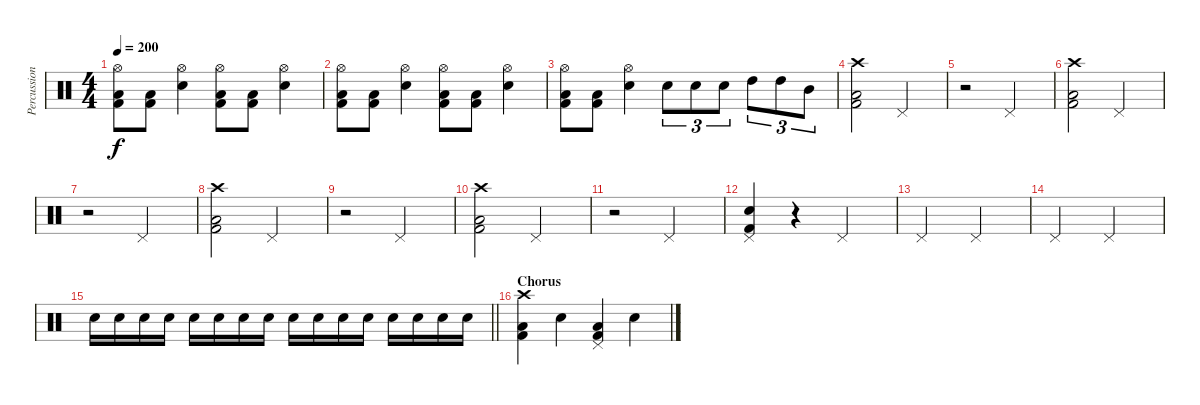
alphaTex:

\track ("Percussion" "Percussion") {instrument percussion}
\staff {score}
\articulation defaults
\ts (4 4)
\tempo 200
\clef neutral
\ks c
("Kick (hit) 2" "Low Floor Tom (hit)" "Hi-Hat (open)").8{dy f} ("Kick (hit) 2" "Low Floor Tom (hit)").8 ("Electric Snare (hit)" "Hi-Hat (open)").4 ("Kick (hit) 2" "Low Floor Tom (hit)" "Hi-Hat (open)").8 ("Kick (hit) 2" "Low Floor Tom (hit)").8 ("Electric Snare (hit)" "Hi-Hat (open)").4 |
("Kick (hit) 2" "Low Floor Tom (hit)" "Hi-Hat (open)").8 ("Kick (hit) 2" "Low Floor Tom (hit)").8 ("Electric Snare (hit)" "Hi-Hat (open)").4 ("Kick (hit) 2" "Low Floor Tom (hit)" "Hi-Hat (open)").8 ("Kick (hit) 2" "Low Floor Tom (hit)").8 ("Electric Snare (hit)" "Hi-Hat (open)").4 |
("Kick (hit) 2" "Low Floor Tom (hit)" "Hi-Hat (open)").8 ("Kick (hit) 2" "Low Floor Tom (hit)").8 ("Electric Snare (hit)" "Hi-Hat (open)").4 "Electric Snare (hit)".8{tu (3 2)} "Electric Snare (hit)".8{tu (3 2)} "Electric Snare (hit)".8{tu (3 2)} "High Tom (hit)".8{tu (3 2)} "High Tom (hit)".8{tu (3 2)} "Mid Tom (hit)".8{tu (3 2)} |
("Kick (hit) 2" "Low Floor Tom (hit)" "Crash high (hit)").2 "Pedal Hi-Hat (hit)".2 |
r.2 "Pedal Hi-Hat (hit)".2 |
("Kick (hit) 2" "Low Floor Tom (hit)" "Crash high (hit)").2 "Pedal Hi-Hat (hit)".2 |
r.2 "Pedal Hi-Hat (hit)".2 |
("Kick (hit) 2" "Low Floor Tom (hit)" "Crash high (hit)").2 "Pedal Hi-Hat (hit)".2 |
r.2 "Pedal Hi-Hat (hit)".2 |
("Kick (hit) 2" "Low Floor Tom (hit)" "Crash high (hit)").2 "Pedal Hi-Hat (hit)".2 |
r.2 "Pedal Hi-Hat (hit)".2 |
("Kick (hit) 2" "Electric Snare (hit)" "Pedal Hi-Hat (hit)").4 r.4 "Pedal Hi-Hat (hit)".2 |
"Pedal Hi-Hat (hit)".2 "Pedal Hi-Hat (hit)".2 |
"Pedal Hi-Hat (hit)".2 "Pedal Hi-Hat (hit)".2 |
\barLineRight lightlight "Electric Snare (hit)".16 "Electric Snare (hit)".16 "Electric Snare (hit)".16 "Electric Snare (hit)".16 "Electric Snare (hit)".16 "Electric Snare (hit)".16 "Electric Snare (hit)".16 "Electric Snare (hit)".16 "Electric Snare (hit)".16 "Electric Snare (hit)".16 "Electric Snare (hit)".16 "Electric Snare (hit)".16 "Electric Snare (hit)".16 "Electric Snare (hit)".16 "Electric Snare (hit)".16 "Electric Snare (hit)".16
|
\section ("" "Chorus")
("Kick (hit) 2" "Low Floor Tom (hit)" "Crash high (hit)").4 "Electric Snare (hit)".4 ("Kick (hit) 2" "Low Floor Tom (hit)" "Pedal Hi-Hat (hit)").4 "Electric Snare (hit)".4
